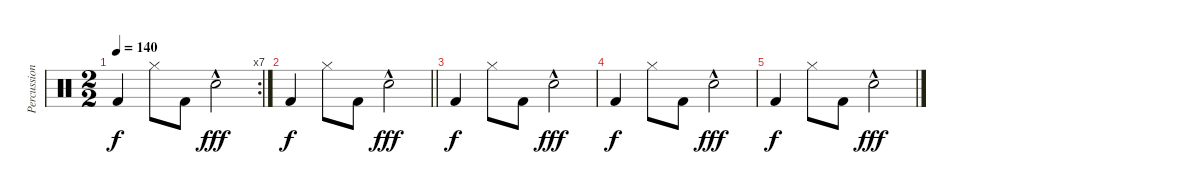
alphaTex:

\track ("Percussion" "Percussion") {instrument percussion}
\staff {score}
\articulation defaults
\rc 7
\ts (2 2)
\tempo 140
\clef neutral
\ks c "Kick (hit) 2".4{dy f} "Hi-Hat (closed)".8 "Kick (hit) 2".8 "Hand Clap (hit)"{hac}.2{dy fff}
|
\barLineRight lightlight "Kick (hit) 2".4{dy f} "Hi-Hat (closed)".8 "Kick (hit) 2".8 "Hand Clap (hit)"{hac}.2{dy fff}
|
"Kick (hit) 2".4{dy f} "Hi-Hat (closed)".8 "Kick (hit) 2".8 "Hand Clap (hit)"{hac}.2{dy fff} |
"Kick (hit) 2".4{dy f} "Hi-Hat (closed)".8 "Kick (hit) 2".8 "Hand Clap (hit)"{hac}.2{dy fff} |
"Kick (hit) 2".4{dy f} "Hi-Hat (closed)".8 "Kick (hit) 2".8 "Hand Clap (hit)"{hac}.2{dy fff}
